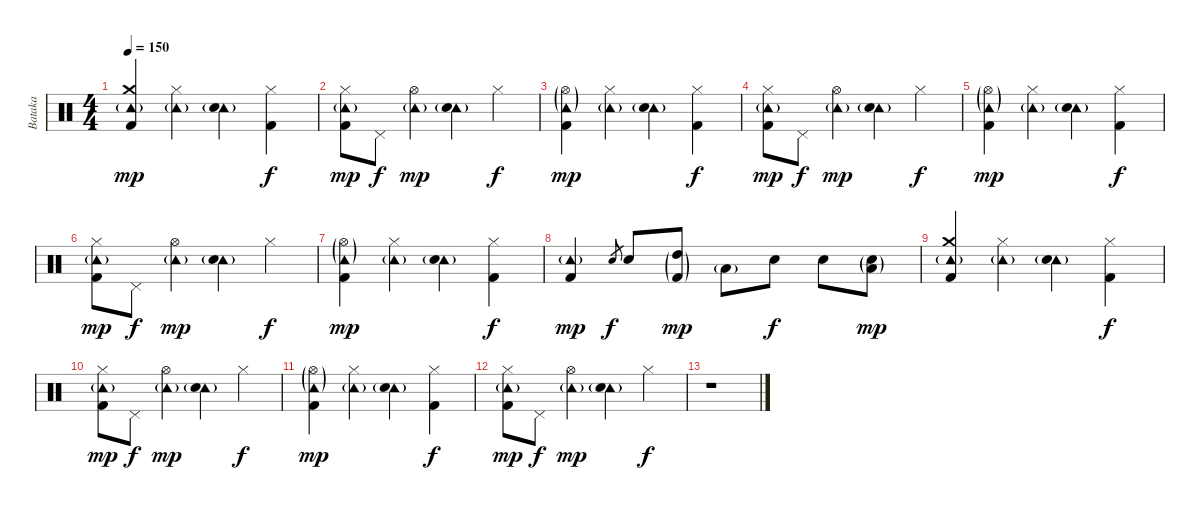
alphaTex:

\track ("Bataka" "Bataka") {instrument percussion}
\staff {score}
\articulation defaults
\ts (4 4)
\tempo 150
\clef neutral
\ks c
("Tambourine (hit)"{g} "Crash medium (hit)" "Kick (hit) 2").4{dy mp volume 12} ("Tambourine (hit)"{g} "Hi-Hat (closed)").4 ("Tambourine (hit)"{g} "Electric Snare (hit)").4 ("Hi-Hat (closed)" "Kick (hit) 2").4{dy f} |
("Tambourine (hit)"{g} "Hi-Hat (closed)" "Kick (hit) 2").8{dy mp volume 11} "Pedal Hi-Hat (hit)".8{dy f} ("Tambourine (hit)"{g} "Hi-Hat (open)").4{dy mp} ("Tambourine (hit)"{g} "Electric Snare (hit)").4 "Hi-Hat (closed)".4{dy f} |
("Tambourine (hit)"{g} "Hi-Hat (open)"{g} "Kick (hit) 2").4{dy mp volume 10} ("Tambourine (hit)"{g} "Hi-Hat (closed)").4 ("Tambourine (hit)"{g} "Electric Snare (hit)").4 ("Hi-Hat (closed)" "Kick (hit) 2").4{dy f} |
("Tambourine (hit)"{g} "Hi-Hat (closed)" "Kick (hit) 2").8{dy mp volume 9} "Pedal Hi-Hat (hit)".8{dy f} ("Tambourine (hit)"{g} "Hi-Hat (open)").4{dy mp} ("Tambourine (hit)"{g} "Electric Snare (hit)").4 "Hi-Hat (closed)".4{dy f} |
("Tambourine (hit)"{g} "Hi-Hat (open)"{g} "Kick (hit) 2").4{dy mp volume 8} ("Tambourine (hit)"{g} "Hi-Hat (closed)").4 ("Tambourine (hit)"{g} "Electric Snare (hit)").4 ("Hi-Hat (closed)" "Kick (hit) 2").4{dy f} |
("Tambourine (hit)"{g} "Hi-Hat (closed)" "Kick (hit) 2").8{dy mp volume 7} "Pedal Hi-Hat (hit)".8{dy f} ("Tambourine (hit)"{g} "Hi-Hat (open)").4{dy mp} ("Tambourine (hit)"{g} "Electric Snare (hit)").4 "Hi-Hat (closed)".4{dy f} |
("Tambourine (hit)"{g} "Hi-Hat (open)"{g} "Kick (hit) 2").4{dy mp volume 6} ("Tambourine (hit)"{g} "Hi-Hat (closed)").4 ("Tambourine (hit)"{g} "Electric Snare (hit)").4 ("Hi-Hat (closed)" "Kick (hit) 2").4{dy f} |
("Tambourine (hit)"{g} "Kick (hit) 2").4{dy mp volume 5} "Electric Snare (hit)".8{gr dy f} "Electric Snare (hit)".8 ("High Tom (hit)"{g} "Kick (hit) 2"{g}).8{dy mp} "Low Tom (hit)"{g}.8 "Electric Snare (hit)".8{dy f} "Electric Snare (hit)".8 ("Electric Snare (hit)"{g} "Low Floor Tom (hit)"{g}).8{dy mp} |
("Tambourine (hit)"{g} "Crash medium (hit)" "Kick (hit) 2").4{volume 3} ("Tambourine (hit)"{g} "Hi-Hat (closed)").4 ("Tambourine (hit)"{g} "Electric Snare (hit)").4 ("Hi-Hat (closed)" "Kick (hit) 2").4{dy f} |
("Tambourine (hit)"{g} "Hi-Hat (closed)" "Kick (hit) 2").8{dy mp volume 2} "Pedal Hi-Hat (hit)".8{dy f} ("Tambourine (hit)"{g} "Hi-Hat (open)").4{dy mp} ("Tambourine (hit)"{g} "Electric Snare (hit)").4 "Hi-Hat (closed)".4{dy f} |
("Tambourine (hit)"{g} "Hi-Hat (open)"{g} "Kick (hit) 2").4{dy mp volume 1} ("Tambourine (hit)"{g} "Hi-Hat (closed)").4 ("Tambourine (hit)"{g} "Electric Snare (hit)").4 ("Hi-Hat (closed)" "Kick (hit) 2").4{dy f} |
("Tambourine (hit)"{g} "Hi-Hat (closed)" "Kick (hit) 2").8{dy mp volume 1} "Pedal Hi-Hat (hit)".8{dy f} ("Tambourine (hit)"{g} "Hi-Hat (open)").4{dy mp} ("Tambourine (hit)"{g} "Electric Snare (hit)").4 "Hi-Hat (closed)".4{dy f} |
r.1
